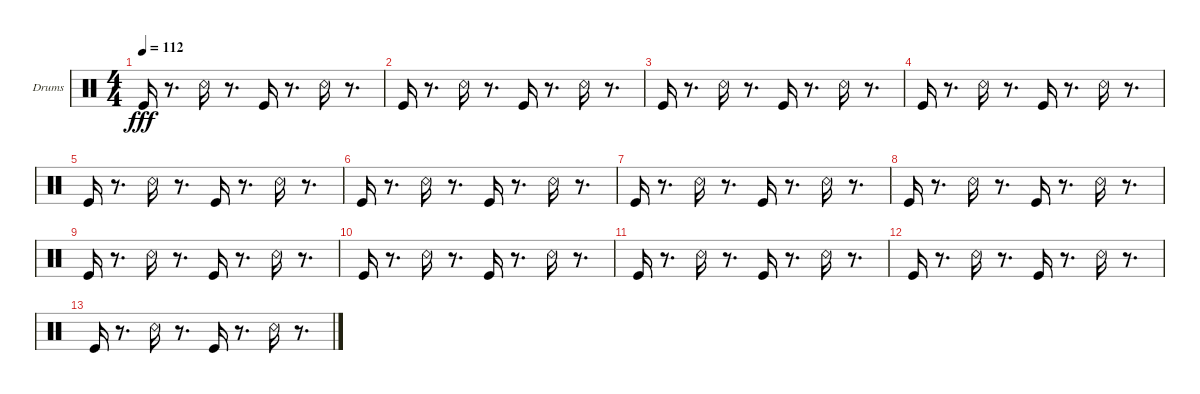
\bracketExtendMode groupsimilarinstruments
\firstSystemTrackNameOrientation horizontal
\otherSystemsTrackNameOrientation horizontal
\track ("drams" "Drums") {instrument percussion}
\staff {score}
\articulation defaults
\ts (4 4)
\tempo 112
\clef neutral
\ks c "Kick (hit)".16{dy fff}
r.8{d} "Snare (rim shot)".16 r.8{d} "Kick (hit)".16 r.8{d} "Snare (rim shot)".16 r.8{d} |
"Kick (hit)".16 r.8{d} "Snare (rim shot)".16 r.8{d} "Kick (hit)".16 r.8{d} "Snare (rim shot)".16 r.8{d} |
"Kick (hit)".16 r.8{d} "Snare (rim shot)".16 r.8{d} "Kick (hit)".16 r.8{d} "Snare (rim shot)".16 r.8{d} |
"Kick (hit)".16 r.8{d} "Snare (rim shot)".16 r.8{d} "Kick (hit)".16 r.8{d} "Snare (rim shot)".16 r.8{d} |
"Kick (hit)".16 r.8{d} "Snare (rim shot)".16 r.8{d} "Kick (hit)".16 r.8{d} "Snare (rim shot)".16 r.8{d} |
"Kick (hit)".16 r.8{d} "Snare (rim shot)".16 r.8{d} "Kick (hit)".16 r.8{d} "Snare (rim shot)".16 r.8{d} |
"Kick (hit)".16 r.8{d} "Snare (rim shot)".16 r.8{d} "Kick (hit)".16 r.8{d} "Snare (rim shot)".16 r.8{d} |
"Kick (hit)".16 r.8{d} "Snare (rim shot)".16 r.8{d} "Kick (hit)".16 r.8{d} "Snare (rim shot)".16 r.8{d} |
"Kick (hit)".16 r.8{d} "Snare (rim shot)".16 r.8{d} "Kick (hit)".16 r.8{d} "Snare (rim shot)".16 r.8{d} |
"Kick (hit)".16 r.8{d} "Snare (rim shot)".16 r.8{d} "Kick (hit)".16 r.8{d} "Snare (rim shot)".16 r.8{d} |
"Kick (hit)".16 r.8{d} "Snare (rim shot)".16 r.8{d} "Kick (hit)".16 r.8{d} "Snare (rim shot)".16 r.8{d} |
"Kick (hit)".16 r.8{d} "Snare (rim shot)".16 r.8{d} "Kick (hit)".16 r.8{d} "Snare (rim shot)".16 r.8{d} |
"Kick (hit)".16 r.8{d} "Snare (rim shot)".16 r.8{d} "Kick (hit)".16 r.8{d} "Snare (rim shot)".16 r.8{d}
